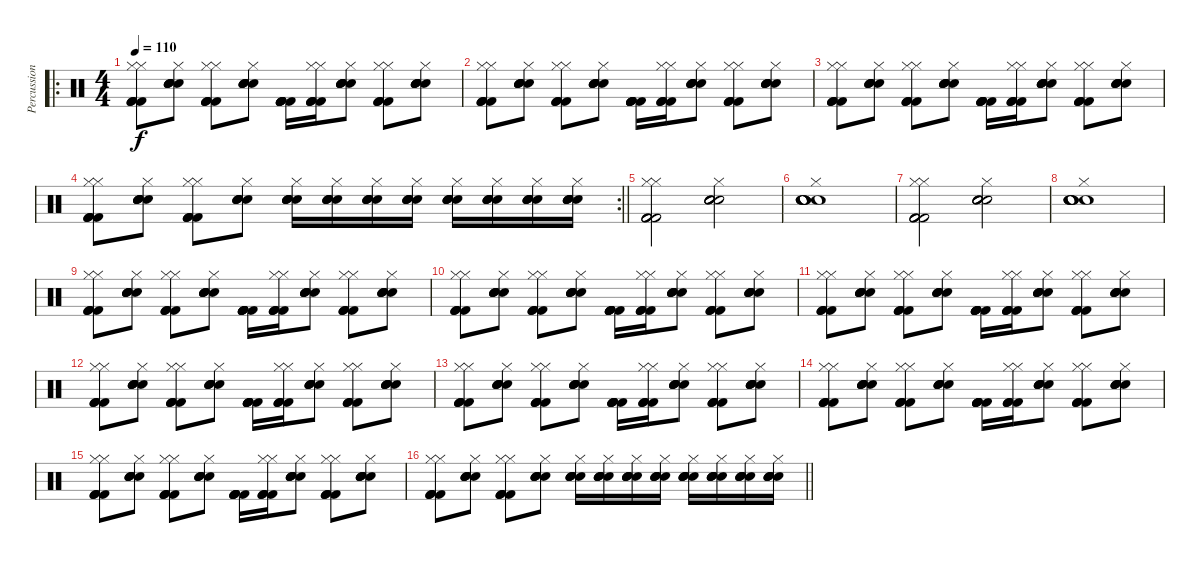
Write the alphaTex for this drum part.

\track ("Percussion" "Percussion") {instrument percussion}
\staff {score}
\articulation defaults
\ro
\ts (4 4)
\tempo 110
\clef neutral
\ks c
("Kick (hit) 2" "Kick (hit) 2" "Kick (hit) 2" "Kick (hit) 2" "Hi-Hat (closed)" "Hi-Hat (closed)").8{dy f} ("Snare (hit) 2" "Snare (hit) 2" "Snare (hit) 2" "Snare (hit) 2" "Snare (hit) 2" "Hi-Hat (closed)").8 ("Kick (hit) 2" "Kick (hit) 2" "Kick (hit) 2" "Kick (hit) 2" "Hi-Hat (closed)" "Hi-Hat (closed)").8 ("Snare (hit) 2" "Snare (hit) 2" "Snare (hit) 2" "Snare (hit) 2" "Snare (hit) 2" "Hi-Hat (closed)").8 ("Kick (hit) 2" "Kick (hit) 2" "Kick (hit) 2" "Kick (hit) 2" "Kick (hit) 2" "Kick (hit) 2").16 ("Kick (hit) 2" "Kick (hit) 2" "Kick (hit) 2" "Kick (hit) 2" "Hi-Hat (closed)" "Hi-Hat (closed)").16 ("Snare (hit) 2" "Snare (hit) 2" "Snare (hit) 2" "Snare (hit) 2" "Snare (hit) 2" "Hi-Hat (closed)").8 ("Kick (hit) 2" "Kick (hit) 2" "Kick (hit) 2" "Kick (hit) 2" "Hi-Hat (closed)" "Hi-Hat (closed)").8 ("Snare (hit) 2" "Snare (hit) 2" "Snare (hit) 2" "Snare (hit) 2" "Snare (hit) 2" "Hi-Hat (closed)").8 |
("Kick (hit) 2" "Kick (hit) 2" "Kick (hit) 2" "Kick (hit) 2" "Hi-Hat (closed)" "Hi-Hat (closed)").8 ("Snare (hit) 2" "Snare (hit) 2" "Snare (hit) 2" "Snare (hit) 2" "Snare (hit) 2" "Hi-Hat (closed)").8 ("Kick (hit) 2" "Kick (hit) 2" "Kick (hit) 2" "Kick (hit) 2" "Hi-Hat (closed)" "Hi-Hat (closed)").8 ("Snare (hit) 2" "Snare (hit) 2" "Snare (hit) 2" "Snare (hit) 2" "Snare (hit) 2" "Hi-Hat (closed)").8 ("Kick (hit) 2" "Kick (hit) 2" "Kick (hit) 2" "Kick (hit) 2" "Kick (hit) 2" "Kick (hit) 2").16 ("Kick (hit) 2" "Kick (hit) 2" "Kick (hit) 2" "Kick (hit) 2" "Hi-Hat (closed)" "Hi-Hat (closed)").16 ("Snare (hit) 2" "Snare (hit) 2" "Snare (hit) 2" "Snare (hit) 2" "Snare (hit) 2" "Hi-Hat (closed)").8 ("Kick (hit) 2" "Kick (hit) 2" "Kick (hit) 2" "Kick (hit) 2" "Hi-Hat (closed)" "Hi-Hat (closed)").8 ("Snare (hit) 2" "Snare (hit) 2" "Snare (hit) 2" "Snare (hit) 2" "Snare (hit) 2" "Hi-Hat (closed)").8 |
("Kick (hit) 2" "Kick (hit) 2" "Kick (hit) 2" "Kick (hit) 2" "Hi-Hat (closed)" "Hi-Hat (closed)").8 ("Snare (hit) 2" "Snare (hit) 2" "Snare (hit) 2" "Snare (hit) 2" "Snare (hit) 2" "Hi-Hat (closed)").8 ("Kick (hit) 2" "Kick (hit) 2" "Kick (hit) 2" "Kick (hit) 2" "Hi-Hat (closed)" "Hi-Hat (closed)").8 ("Snare (hit) 2" "Snare (hit) 2" "Snare (hit) 2" "Snare (hit) 2" "Snare (hit) 2" "Hi-Hat (closed)").8 ("Kick (hit) 2" "Kick (hit) 2" "Kick (hit) 2" "Kick (hit) 2" "Kick (hit) 2" "Kick (hit) 2").16 ("Kick (hit) 2" "Kick (hit) 2" "Kick (hit) 2" "Kick (hit) 2" "Hi-Hat (closed)" "Hi-Hat (closed)").16 ("Snare (hit) 2" "Snare (hit) 2" "Snare (hit) 2" "Snare (hit) 2" "Snare (hit) 2" "Hi-Hat (closed)").8 ("Kick (hit) 2" "Kick (hit) 2" "Kick (hit) 2" "Kick (hit) 2" "Hi-Hat (closed)" "Hi-Hat (closed)").8 ("Snare (hit) 2" "Snare (hit) 2" "Snare (hit) 2" "Snare (hit) 2" "Snare (hit) 2" "Hi-Hat (closed)").8 |
\rc 2
\barLineRight lightlight
("Kick (hit) 2" "Kick (hit) 2" "Kick (hit) 2" "Kick (hit) 2" "Hi-Hat (closed)" "Hi-Hat (closed)").8 ("Snare (hit) 2" "Snare (hit) 2" "Snare (hit) 2" "Snare (hit) 2" "Snare (hit) 2" "Hi-Hat (closed)").8 ("Kick (hit) 2" "Kick (hit) 2" "Kick (hit) 2" "Kick (hit) 2" "Hi-Hat (closed)" "Hi-Hat (closed)").8 ("Snare (hit) 2" "Snare (hit) 2" "Snare (hit) 2" "Snare (hit) 2" "Snare (hit) 2" "Hi-Hat (closed)").8 ("Snare (hit) 2" "Snare (hit) 2" "Snare (hit) 2" "Snare (hit) 2" "Snare (hit) 2" "Hi-Hat (closed)").16 ("Snare (hit) 2" "Snare (hit) 2" "Snare (hit) 2" "Snare (hit) 2" "Snare (hit) 2" "Hi-Hat (closed)").16 ("Snare (hit) 2" "Snare (hit) 2" "Snare (hit) 2" "Snare (hit) 2" "Snare (hit) 2" "Hi-Hat (closed)").16 ("Snare (hit) 2" "Snare (hit) 2" "Snare (hit) 2" "Snare (hit) 2" "Snare (hit) 2" "Hi-Hat (closed)").16 ("Snare (hit) 2" "Snare (hit) 2" "Snare (hit) 2" "Snare (hit) 2" "Snare (hit) 2" "Hi-Hat (closed)").16 ("Snare (hit) 2" "Snare (hit) 2" "Snare (hit) 2" "Snare (hit) 2" "Snare (hit) 2" "Hi-Hat (closed)").16 ("Snare (hit) 2" "Snare (hit) 2" "Snare (hit) 2" "Snare (hit) 2" "Snare (hit) 2" "Hi-Hat (closed)").16 ("Snare (hit) 2" "Snare (hit) 2" "Snare (hit) 2" "Snare (hit) 2" "Snare (hit) 2" "Hi-Hat (closed)").16 |
("Kick (hit) 2" "Kick (hit) 2" "Kick (hit) 2" "Kick (hit) 2" "Hi-Hat (closed)" "Hi-Hat (closed)").2 ("Snare (hit) 2" "Snare (hit) 2" "Snare (hit) 2" "Snare (hit) 2" "Snare (hit) 2" "Hi-Hat (closed)").2 |
("Snare (hit) 2" "Snare (hit) 2" "Snare (hit) 2" "Snare (hit) 2" "Snare (hit) 2" "Hi-Hat (closed)").1 |
("Kick (hit) 2" "Kick (hit) 2" "Kick (hit) 2" "Kick (hit) 2" "Hi-Hat (closed)" "Hi-Hat (closed)").2 ("Snare (hit) 2" "Snare (hit) 2" "Snare (hit) 2" "Snare (hit) 2" "Snare (hit) 2" "Hi-Hat (closed)").2 |
("Snare (hit) 2" "Snare (hit) 2" "Snare (hit) 2" "Snare (hit) 2" "Snare (hit) 2" "Hi-Hat (closed)").1 |
("Kick (hit) 2" "Kick (hit) 2" "Kick (hit) 2" "Kick (hit) 2" "Hi-Hat (closed)" "Hi-Hat (closed)").8 ("Snare (hit) 2" "Snare (hit) 2" "Snare (hit) 2" "Snare (hit) 2" "Snare (hit) 2" "Hi-Hat (closed)").8 ("Kick (hit) 2" "Kick (hit) 2" "Kick (hit) 2" "Kick (hit) 2" "Hi-Hat (closed)" "Hi-Hat (closed)").8 ("Snare (hit) 2" "Snare (hit) 2" "Snare (hit) 2" "Snare (hit) 2" "Snare (hit) 2" "Hi-Hat (closed)").8 ("Kick (hit) 2" "Kick (hit) 2" "Kick (hit) 2" "Kick (hit) 2" "Kick (hit) 2" "Kick (hit) 2").16 ("Kick (hit) 2" "Kick (hit) 2" "Kick (hit) 2" "Kick (hit) 2" "Hi-Hat (closed)" "Hi-Hat (closed)").16 ("Snare (hit) 2" "Snare (hit) 2" "Snare (hit) 2" "Snare (hit) 2" "Snare (hit) 2" "Hi-Hat (closed)").8 ("Kick (hit) 2" "Kick (hit) 2" "Kick (hit) 2" "Kick (hit) 2" "Hi-Hat (closed)" "Hi-Hat (closed)").8 ("Snare (hit) 2" "Snare (hit) 2" "Snare (hit) 2" "Snare (hit) 2" "Snare (hit) 2" "Hi-Hat (closed)").8 |
("Kick (hit) 2" "Kick (hit) 2" "Kick (hit) 2" "Kick (hit) 2" "Hi-Hat (closed)" "Hi-Hat (closed)").8 ("Snare (hit) 2" "Snare (hit) 2" "Snare (hit) 2" "Snare (hit) 2" "Snare (hit) 2" "Hi-Hat (closed)").8 ("Kick (hit) 2" "Kick (hit) 2" "Kick (hit) 2" "Kick (hit) 2" "Hi-Hat (closed)" "Hi-Hat (closed)").8 ("Snare (hit) 2" "Snare (hit) 2" "Snare (hit) 2" "Snare (hit) 2" "Snare (hit) 2" "Hi-Hat (closed)").8 ("Kick (hit) 2" "Kick (hit) 2" "Kick (hit) 2" "Kick (hit) 2" "Kick (hit) 2" "Kick (hit) 2").16 ("Kick (hit) 2" "Kick (hit) 2" "Kick (hit) 2" "Kick (hit) 2" "Hi-Hat (closed)" "Hi-Hat (closed)").16 ("Snare (hit) 2" "Snare (hit) 2" "Snare (hit) 2" "Snare (hit) 2" "Snare (hit) 2" "Hi-Hat (closed)").8 ("Kick (hit) 2" "Kick (hit) 2" "Kick (hit) 2" "Kick (hit) 2" "Hi-Hat (closed)" "Hi-Hat (closed)").8 ("Snare (hit) 2" "Snare (hit) 2" "Snare (hit) 2" "Snare (hit) 2" "Snare (hit) 2" "Hi-Hat (closed)").8 |
("Kick (hit) 2" "Kick (hit) 2" "Kick (hit) 2" "Kick (hit) 2" "Hi-Hat (closed)" "Hi-Hat (closed)").8 ("Snare (hit) 2" "Snare (hit) 2" "Snare (hit) 2" "Snare (hit) 2" "Snare (hit) 2" "Hi-Hat (closed)").8 ("Kick (hit) 2" "Kick (hit) 2" "Kick (hit) 2" "Kick (hit) 2" "Hi-Hat (closed)" "Hi-Hat (closed)").8 ("Snare (hit) 2" "Snare (hit) 2" "Snare (hit) 2" "Snare (hit) 2" "Snare (hit) 2" "Hi-Hat (closed)").8 ("Kick (hit) 2" "Kick (hit) 2" "Kick (hit) 2" "Kick (hit) 2" "Kick (hit) 2" "Kick (hit) 2").16 ("Kick (hit) 2" "Kick (hit) 2" "Kick (hit) 2" "Kick (hit) 2" "Hi-Hat (closed)" "Hi-Hat (closed)").16 ("Snare (hit) 2" "Snare (hit) 2" "Snare (hit) 2" "Snare (hit) 2" "Snare (hit) 2" "Hi-Hat (closed)").8 ("Kick (hit) 2" "Kick (hit) 2" "Kick (hit) 2" "Kick (hit) 2" "Hi-Hat (closed)" "Hi-Hat (closed)").8 ("Snare (hit) 2" "Snare (hit) 2" "Snare (hit) 2" "Snare (hit) 2" "Snare (hit) 2" "Hi-Hat (closed)").8 |
("Kick (hit) 2" "Kick (hit) 2" "Kick (hit) 2" "Kick (hit) 2" "Hi-Hat (closed)" "Hi-Hat (closed)").8 ("Snare (hit) 2" "Snare (hit) 2" "Snare (hit) 2" "Snare (hit) 2" "Snare (hit) 2" "Hi-Hat (closed)").8 ("Kick (hit) 2" "Kick (hit) 2" "Kick (hit) 2" "Kick (hit) 2" "Hi-Hat (closed)" "Hi-Hat (closed)").8 ("Snare (hit) 2" "Snare (hit) 2" "Snare (hit) 2" "Snare (hit) 2" "Snare (hit) 2" "Hi-Hat (closed)").8 ("Kick (hit) 2" "Kick (hit) 2" "Kick (hit) 2" "Kick (hit) 2" "Kick (hit) 2" "Kick (hit) 2").16 ("Kick (hit) 2" "Kick (hit) 2" "Kick (hit) 2" "Kick (hit) 2" "Hi-Hat (closed)" "Hi-Hat (closed)").16 ("Snare (hit) 2" "Snare (hit) 2" "Snare (hit) 2" "Snare (hit) 2" "Snare (hit) 2" "Hi-Hat (closed)").8 ("Kick (hit) 2" "Kick (hit) 2" "Kick (hit) 2" "Kick (hit) 2" "Hi-Hat (closed)" "Hi-Hat (closed)").8 ("Snare (hit) 2" "Snare (hit) 2" "Snare (hit) 2" "Snare (hit) 2" "Snare (hit) 2" "Hi-Hat (closed)").8 |
("Kick (hit) 2" "Kick (hit) 2" "Kick (hit) 2" "Kick (hit) 2" "Hi-Hat (closed)" "Hi-Hat (closed)").8 ("Snare (hit) 2" "Snare (hit) 2" "Snare (hit) 2" "Snare (hit) 2" "Snare (hit) 2" "Hi-Hat (closed)").8 ("Kick (hit) 2" "Kick (hit) 2" "Kick (hit) 2" "Kick (hit) 2" "Hi-Hat (closed)" "Hi-Hat (closed)").8 ("Snare (hit) 2" "Snare (hit) 2" "Snare (hit) 2" "Snare (hit) 2" "Snare (hit) 2" "Hi-Hat (closed)").8 ("Kick (hit) 2" "Kick (hit) 2" "Kick (hit) 2" "Kick (hit) 2" "Kick (hit) 2" "Kick (hit) 2").16 ("Kick (hit) 2" "Kick (hit) 2" "Kick (hit) 2" "Kick (hit) 2" "Hi-Hat (closed)" "Hi-Hat (closed)").16 ("Snare (hit) 2" "Snare (hit) 2" "Snare (hit) 2" "Snare (hit) 2" "Snare (hit) 2" "Hi-Hat (closed)").8 ("Kick (hit) 2" "Kick (hit) 2" "Kick (hit) 2" "Kick (hit) 2" "Hi-Hat (closed)" "Hi-Hat (closed)").8 ("Snare (hit) 2" "Snare (hit) 2" "Snare (hit) 2" "Snare (hit) 2" "Snare (hit) 2" "Hi-Hat (closed)").8 |
("Kick (hit) 2" "Kick (hit) 2" "Kick (hit) 2" "Kick (hit) 2" "Hi-Hat (closed)" "Hi-Hat (closed)").8 ("Snare (hit) 2" "Snare (hit) 2" "Snare (hit) 2" "Snare (hit) 2" "Snare (hit) 2" "Hi-Hat (closed)").8 ("Kick (hit) 2" "Kick (hit) 2" "Kick (hit) 2" "Kick (hit) 2" "Hi-Hat (closed)" "Hi-Hat (closed)").8 ("Snare (hit) 2" "Snare (hit) 2" "Snare (hit) 2" "Snare (hit) 2" "Snare (hit) 2" "Hi-Hat (closed)").8 ("Kick (hit) 2" "Kick (hit) 2" "Kick (hit) 2" "Kick (hit) 2" "Kick (hit) 2" "Kick (hit) 2").16 ("Kick (hit) 2" "Kick (hit) 2" "Kick (hit) 2" "Kick (hit) 2" "Hi-Hat (closed)" "Hi-Hat (closed)").16 ("Snare (hit) 2" "Snare (hit) 2" "Snare (hit) 2" "Snare (hit) 2" "Snare (hit) 2" "Hi-Hat (closed)").8 ("Kick (hit) 2" "Kick (hit) 2" "Kick (hit) 2" "Kick (hit) 2" "Hi-Hat (closed)" "Hi-Hat (closed)").8 ("Snare (hit) 2" "Snare (hit) 2" "Snare (hit) 2" "Snare (hit) 2" "Snare (hit) 2" "Hi-Hat (closed)").8 |
("Kick (hit) 2" "Kick (hit) 2" "Kick (hit) 2" "Kick (hit) 2" "Hi-Hat (closed)" "Hi-Hat (closed)").8 ("Snare (hit) 2" "Snare (hit) 2" "Snare (hit) 2" "Snare (hit) 2" "Snare (hit) 2" "Hi-Hat (closed)").8 ("Kick (hit) 2" "Kick (hit) 2" "Kick (hit) 2" "Kick (hit) 2" "Hi-Hat (closed)" "Hi-Hat (closed)").8 ("Snare (hit) 2" "Snare (hit) 2" "Snare (hit) 2" "Snare (hit) 2" "Snare (hit) 2" "Hi-Hat (closed)").8 ("Kick (hit) 2" "Kick (hit) 2" "Kick (hit) 2" "Kick (hit) 2" "Kick (hit) 2" "Kick (hit) 2").16 ("Kick (hit) 2" "Kick (hit) 2" "Kick (hit) 2" "Kick (hit) 2" "Hi-Hat (closed)" "Hi-Hat (closed)").16 ("Snare (hit) 2" "Snare (hit) 2" "Snare (hit) 2" "Snare (hit) 2" "Snare (hit) 2" "Hi-Hat (closed)").8 ("Kick (hit) 2" "Kick (hit) 2" "Kick (hit) 2" "Kick (hit) 2" "Hi-Hat (closed)" "Hi-Hat (closed)").8 ("Snare (hit) 2" "Snare (hit) 2" "Snare (hit) 2" "Snare (hit) 2" "Snare (hit) 2" "Hi-Hat (closed)").8 |
\barLineRight lightlight
("Kick (hit) 2" "Kick (hit) 2" "Kick (hit) 2" "Kick (hit) 2" "Hi-Hat (closed)" "Hi-Hat (closed)").8 ("Snare (hit) 2" "Snare (hit) 2" "Snare (hit) 2" "Snare (hit) 2" "Snare (hit) 2" "Hi-Hat (closed)").8 ("Kick (hit) 2" "Kick (hit) 2" "Kick (hit) 2" "Kick (hit) 2" "Hi-Hat (closed)" "Hi-Hat (closed)").8 ("Snare (hit) 2" "Snare (hit) 2" "Snare (hit) 2" "Snare (hit) 2" "Snare (hit) 2" "Hi-Hat (closed)").8 ("Snare (hit) 2" "Snare (hit) 2" "Snare (hit) 2" "Snare (hit) 2" "Snare (hit) 2" "Hi-Hat (closed)").16 ("Snare (hit) 2" "Snare (hit) 2" "Snare (hit) 2" "Snare (hit) 2" "Snare (hit) 2" "Hi-Hat (closed)").16 ("Snare (hit) 2" "Snare (hit) 2" "Snare (hit) 2" "Snare (hit) 2" "Snare (hit) 2" "Hi-Hat (closed)").16 ("Snare (hit) 2" "Snare (hit) 2" "Snare (hit) 2" "Snare (hit) 2" "Snare (hit) 2" "Hi-Hat (closed)").16 ("Snare (hit) 2" "Snare (hit) 2" "Snare (hit) 2" "Snare (hit) 2" "Snare (hit) 2" "Hi-Hat (closed)").16 ("Snare (hit) 2" "Snare (hit) 2" "Snare (hit) 2" "Snare (hit) 2" "Snare (hit) 2" "Hi-Hat (closed)").16 ("Snare (hit) 2" "Snare (hit) 2" "Snare (hit) 2" "Snare (hit) 2" "Snare (hit) 2" "Hi-Hat (closed)").16 ("Snare (hit) 2" "Snare (hit) 2" "Snare (hit) 2" "Snare (hit) 2" "Snare (hit) 2" "Hi-Hat (closed)").16
